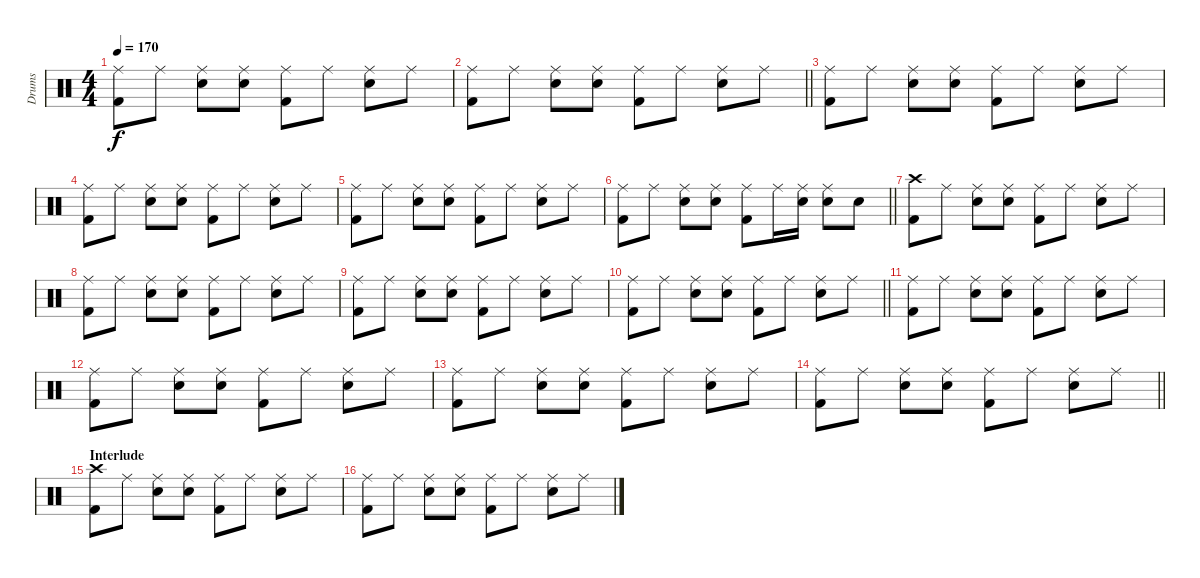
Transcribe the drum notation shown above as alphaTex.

\track ("Drums" "Drums") {instrument percussion}
\staff {score}
\articulation defaults
\ts (4 4)
\tempo 170
\clef neutral
\ks c
("Ride (middle)" "Kick (hit) 2").8{dy f} "Ride (middle)".8 ("Ride (middle)" "Snare (hit) 2").8 ("Ride (middle)" "Snare (hit) 2").8 ("Ride (middle)" "Kick (hit) 2").8 "Ride (middle)".8 ("Ride (middle)" "Snare (hit) 2").8 "Ride (middle)".8 |
\barLineRight lightlight
("Ride (middle)" "Kick (hit) 2").8 "Ride (middle)".8 ("Ride (middle)" "Snare (hit) 2").8 ("Ride (middle)" "Snare (hit) 2").8 ("Ride (middle)" "Kick (hit) 2").8 "Ride (middle)".8 ("Ride (middle)" "Snare (hit) 2").8 "Ride (middle)".8 |
("Ride (middle)" "Kick (hit) 2").8 "Ride (middle)".8 ("Ride (middle)" "Snare (hit) 2").8 ("Ride (middle)" "Snare (hit) 2").8 ("Ride (middle)" "Kick (hit) 2").8 "Ride (middle)".8 ("Ride (middle)" "Snare (hit) 2").8 "Ride (middle)".8 |
("Ride (middle)" "Kick (hit) 2").8 "Ride (middle)".8 ("Ride (middle)" "Snare (hit) 2").8 ("Ride (middle)" "Snare (hit) 2").8 ("Ride (middle)" "Kick (hit) 2").8 "Ride (middle)".8 ("Ride (middle)" "Snare (hit) 2").8 "Ride (middle)".8 |
("Ride (middle)" "Kick (hit) 2").8 "Ride (middle)".8 ("Ride (middle)" "Snare (hit) 2").8 ("Ride (middle)" "Snare (hit) 2").8 ("Ride (middle)" "Kick (hit) 2").8 "Ride (middle)".8 ("Ride (middle)" "Snare (hit) 2").8 "Ride (middle)".8 |
\barLineRight lightlight
("Ride (middle)" "Kick (hit) 2").8 "Ride (middle)".8 ("Ride (middle)" "Snare (hit) 2").8 ("Ride (middle)" "Snare (hit) 2").8 ("Ride (middle)" "Kick (hit) 2").8 "Ride (middle)".16 ("Ride (middle)" "Snare (hit) 2").16 ("Ride (middle)" "Snare (hit) 2").8 "Snare (hit) 2".8 |
("Crash high (hit)" "Kick (hit) 2").8 "Ride (middle)".8 ("Ride (middle)" "Snare (hit) 2").8 ("Ride (middle)" "Snare (hit) 2").8 ("Ride (middle)" "Kick (hit) 2").8 "Ride (middle)".8 ("Ride (middle)" "Snare (hit) 2").8 "Ride (middle)".8 |
("Ride (middle)" "Kick (hit) 2").8 "Ride (middle)".8 ("Ride (middle)" "Snare (hit) 2").8 ("Ride (middle)" "Snare (hit) 2").8 ("Ride (middle)" "Kick (hit) 2").8 "Ride (middle)".8 ("Ride (middle)" "Snare (hit) 2").8 "Ride (middle)".8 |
("Ride (middle)" "Kick (hit) 2").8 "Ride (middle)".8 ("Ride (middle)" "Snare (hit) 2").8 ("Ride (middle)" "Snare (hit) 2").8 ("Ride (middle)" "Kick (hit) 2").8 "Ride (middle)".8 ("Ride (middle)" "Snare (hit) 2").8 "Ride (middle)".8 |
\barLineRight lightlight
("Ride (middle)" "Kick (hit) 2").8 "Ride (middle)".8 ("Ride (middle)" "Snare (hit) 2").8 ("Ride (middle)" "Snare (hit) 2").8 ("Ride (middle)" "Kick (hit) 2").8 "Ride (middle)".8 ("Ride (middle)" "Snare (hit) 2").8 "Ride (middle)".8 |
("Ride (middle)" "Kick (hit) 2").8 "Ride (middle)".8 ("Ride (middle)" "Snare (hit) 2").8 ("Ride (middle)" "Snare (hit) 2").8 ("Ride (middle)" "Kick (hit) 2").8 "Ride (middle)".8 ("Ride (middle)" "Snare (hit) 2").8 "Ride (middle)".8 |
("Ride (middle)" "Kick (hit) 2").8 "Ride (middle)".8 ("Ride (middle)" "Snare (hit) 2").8 ("Ride (middle)" "Snare (hit) 2").8 ("Ride (middle)" "Kick (hit) 2").8 "Ride (middle)".8 ("Ride (middle)" "Snare (hit) 2").8 "Ride (middle)".8 |
("Ride (middle)" "Kick (hit) 2").8 "Ride (middle)".8 ("Ride (middle)" "Snare (hit) 2").8 ("Ride (middle)" "Snare (hit) 2").8 ("Ride (middle)" "Kick (hit) 2").8 "Ride (middle)".8 ("Ride (middle)" "Snare (hit) 2").8 "Ride (middle)".8 |
\barLineRight lightlight
("Ride (middle)" "Kick (hit) 2").8 "Ride (middle)".8 ("Ride (middle)" "Snare (hit) 2").8 ("Ride (middle)" "Snare (hit) 2").8 ("Ride (middle)" "Kick (hit) 2").8 "Ride (middle)".8 ("Ride (middle)" "Snare (hit) 2").8 "Ride (middle)".8 |
\section ("" "Interlude")
("Crash high (hit)" "Kick (hit) 2").8 "Ride (middle)".8 ("Ride (middle)" "Snare (hit) 2").8 ("Ride (middle)" "Snare (hit) 2").8 ("Ride (middle)" "Kick (hit) 2").8 "Ride (middle)".8 ("Ride (middle)" "Snare (hit) 2").8 "Ride (middle)".8 |
("Ride (middle)" "Kick (hit) 2").8 "Ride (middle)".8 ("Ride (middle)" "Snare (hit) 2").8 ("Ride (middle)" "Snare (hit) 2").8 ("Ride (middle)" "Kick (hit) 2").8 "Ride (middle)".8 ("Ride (middle)" "Snare (hit) 2").8 "Ride (middle)".8
